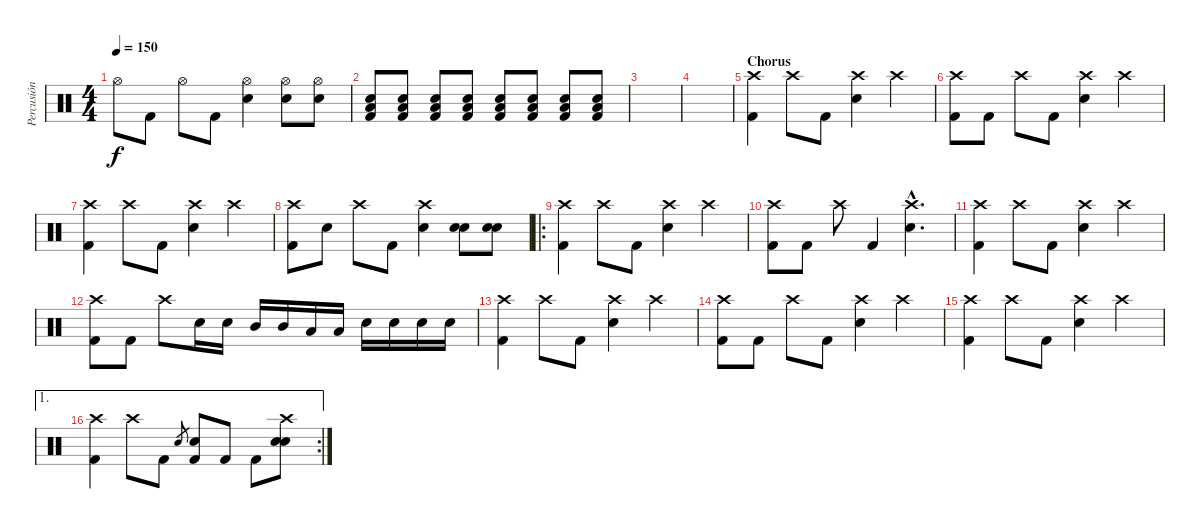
\track ("Percusión" "Percusión") {instrument percussion}
\staff {score}
\articulation defaults
\ts (4 4)
\tempo 150
\clef neutral
\ks c "Hi-Hat (open)".8{dy f} "Kick (hit) 2".8 "Hi-Hat (open)".8 "Kick (hit) 2".8
("Hi-Hat (open)" "Electric Snare (hit)").4 ("Hi-Hat (open)" "Electric Snare (hit)").8 ("Hi-Hat (open)" "Electric Snare (hit)").8 |
("Electric Snare (hit)" "Kick (hit) 2" "Low Floor Tom (hit)").8 ("Electric Snare (hit)" "Kick (hit) 2" "Low Floor Tom (hit)").8 ("Electric Snare (hit)" "Kick (hit) 2" "Low Floor Tom (hit)").8 ("Electric Snare (hit)" "Kick (hit) 2" "Low Floor Tom (hit)").8 ("Electric Snare (hit)" "Kick (hit) 2" "Low Floor Tom (hit)").8 ("Electric Snare (hit)" "Kick (hit) 2" "Low Floor Tom (hit)").8 ("Electric Snare (hit)" "Kick (hit) 2" "Low Floor Tom (hit)").8 ("Electric Snare (hit)" "Kick (hit) 2" "Low Floor Tom (hit)").8 |
|
|
\section ("" "Chorus")
("Crash high (hit)" "Kick (hit) 2").4 "Crash high (hit)".8 "Kick (hit) 2".8 ("Crash high (hit)" "Electric Snare (hit)").4 "Crash high (hit)".4 |
("Crash high (hit)" "Kick (hit) 2").8 "Kick (hit) 2".8 "Crash high (hit)".8 "Kick (hit) 2".8 ("Crash high (hit)" "Electric Snare (hit)").4 "Crash high (hit)".4 |
("Crash high (hit)" "Kick (hit) 2").4 "Crash high (hit)".8 "Kick (hit) 2".8 ("Crash high (hit)" "Electric Snare (hit)").4 "Crash high (hit)".4 |
("Crash high (hit)" "Kick (hit) 2").8 "Electric Snare (hit)".8 "Crash high (hit)".8 "Kick (hit) 2".8 ("Crash high (hit)" "Electric Snare (hit)").4 ("Electric Snare (hit)" "Electric Snare (hit)").8 ("Electric Snare (hit)" "Electric Snare (hit)").8 |
\ro
("Crash high (hit)" "Kick (hit) 2").4 "Crash high (hit)".8 "Kick (hit) 2".8 ("Crash high (hit)" "Electric Snare (hit)").4 "Crash high (hit)".4 |
("Crash high (hit)" "Kick (hit) 2").8 "Kick (hit) 2".8 "Crash high (hit)".8 "Kick (hit) 2".4 ("Crash high (hit)"{hac} "Electric Snare (hit)"{hac}).4{d} |
("Crash high (hit)" "Kick (hit) 2").4 "Crash high (hit)".8 "Kick (hit) 2".8 ("Crash high (hit)" "Electric Snare (hit)").4 "Crash high (hit)".4 |
("Crash high (hit)" "Kick (hit) 2").8 "Kick (hit) 2".8 "Crash high (hit)".8 "Electric Snare (hit)".16 "Electric Snare (hit)".16 "Mid Tom (hit)".16 "Mid Tom (hit)".16 "Low Tom (hit)".16 "Low Tom (hit)".16 "Electric Snare (hit)".16 "Electric Snare (hit)".16 "Electric Snare (hit)".16 "Electric Snare (hit)".16 |
("Crash high (hit)" "Kick (hit) 2").4 "Crash high (hit)".8 "Kick (hit) 2".8 ("Crash high (hit)" "Electric Snare (hit)").4 "Crash high (hit)".4 |
("Crash high (hit)" "Kick (hit) 2").8 "Kick (hit) 2".8 "Crash high (hit)".8 "Kick (hit) 2".8 ("Crash high (hit)" "Electric Snare (hit)").4 "Crash high (hit)".4 |
("Crash high (hit)" "Kick (hit) 2").4 "Crash high (hit)".8 "Kick (hit) 2".8 ("Crash high (hit)" "Electric Snare (hit)").4 "Crash high (hit)".4 |
\ae 1
\rc 2
("Crash high (hit)" "Kick (hit) 2").4 "Crash high (hit)".8 "Kick (hit) 2".8 "Electric Snare (hit)".8{gr} ("Electric Snare (hit)" "Kick (hit) 2").8 "Kick (hit) 2".8 "Kick (hit) 2".8 ("Crash high (hit)" "Electric Snare (hit)" "Electric Snare (hit)").8
